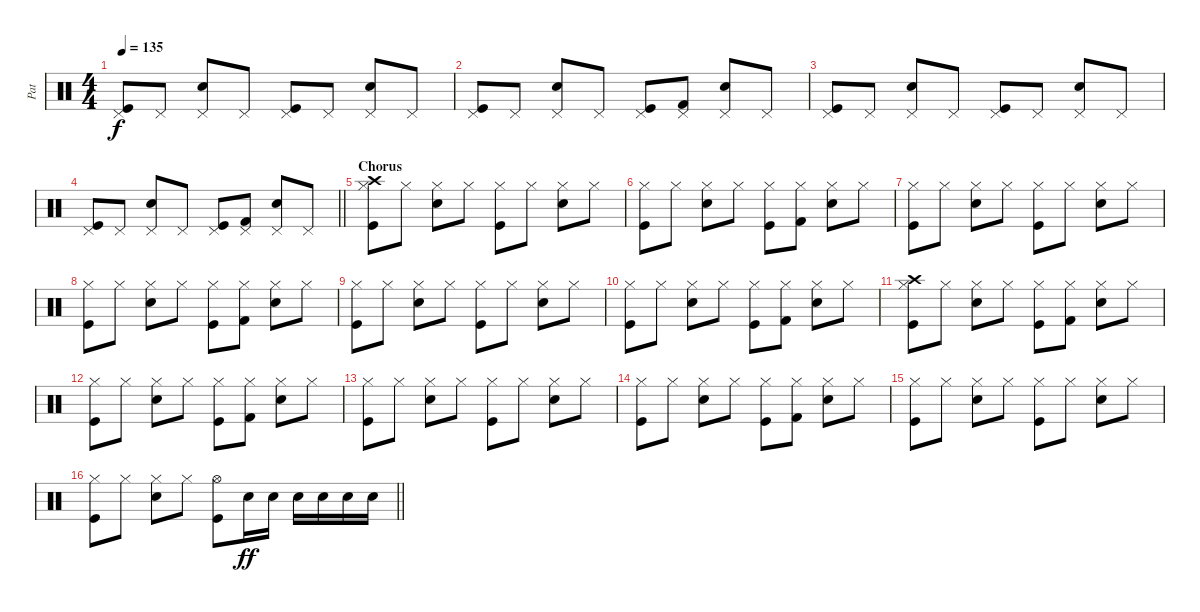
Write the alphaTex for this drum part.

\track ("Pat" "Pat") {instrument percussion}
\staff {score}
\articulation defaults
\ts (4 4)
\tempo 135
\clef neutral
\ks c
("Pedal Hi-Hat (hit)" "Kick (hit)").8{dy f} "Pedal Hi-Hat (hit)".8 ("Pedal Hi-Hat (hit)" "Snare (hit) 2").8 "Pedal Hi-Hat (hit)".8 ("Pedal Hi-Hat (hit)" "Kick (hit)").8 "Pedal Hi-Hat (hit)".8 ("Pedal Hi-Hat (hit)" "Snare (hit) 2").8 "Pedal Hi-Hat (hit)".8 |
("Pedal Hi-Hat (hit)" "Kick (hit)").8 "Pedal Hi-Hat (hit)".8 ("Pedal Hi-Hat (hit)" "Snare (hit) 2").8 "Pedal Hi-Hat (hit)".8 ("Pedal Hi-Hat (hit)" "Kick (hit)").8 ("Pedal Hi-Hat (hit)" "Kick (hit) 2").8 ("Pedal Hi-Hat (hit)" "Snare (hit) 2").8 "Pedal Hi-Hat (hit)".8 |
("Pedal Hi-Hat (hit)" "Kick (hit)").8 "Pedal Hi-Hat (hit)".8 ("Pedal Hi-Hat (hit)" "Snare (hit) 2").8 "Pedal Hi-Hat (hit)".8 ("Pedal Hi-Hat (hit)" "Kick (hit)").8 "Pedal Hi-Hat (hit)".8 ("Pedal Hi-Hat (hit)" "Snare (hit) 2").8 "Pedal Hi-Hat (hit)".8 |
\barLineRight lightlight
("Pedal Hi-Hat (hit)" "Kick (hit)").8 "Pedal Hi-Hat (hit)".8 ("Pedal Hi-Hat (hit)" "Snare (hit) 2").8 "Pedal Hi-Hat (hit)".8 ("Pedal Hi-Hat (hit)" "Kick (hit)").8 ("Pedal Hi-Hat (hit)" "Kick (hit) 2").8 ("Pedal Hi-Hat (hit)" "Snare (hit) 2").8 "Pedal Hi-Hat (hit)".8 |
\section ("" "Chorus")
("Crash high (hit)" "Hi-Hat (closed)" "Kick (hit)").8 "Hi-Hat (closed)".8 ("Hi-Hat (closed)" "Snare (hit) 2").8 "Hi-Hat (closed)".8 ("Hi-Hat (closed)" "Kick (hit)").8 "Hi-Hat (closed)".8 ("Hi-Hat (closed)" "Snare (hit) 2").8 "Hi-Hat (closed)".8 |
("Hi-Hat (closed)" "Kick (hit)").8 "Hi-Hat (closed)".8 ("Hi-Hat (closed)" "Snare (hit) 2").8 "Hi-Hat (closed)".8 ("Hi-Hat (closed)" "Kick (hit)").8 ("Hi-Hat (closed)" "Kick (hit) 2").8 ("Hi-Hat (closed)" "Snare (hit) 2").8 "Hi-Hat (closed)".8 |
("Hi-Hat (closed)" "Kick (hit)").8 "Hi-Hat (closed)".8 ("Hi-Hat (closed)" "Snare (hit) 2").8 "Hi-Hat (closed)".8 ("Hi-Hat (closed)" "Kick (hit)").8 "Hi-Hat (closed)".8 ("Hi-Hat (closed)" "Snare (hit) 2").8 "Hi-Hat (closed)".8 |
("Hi-Hat (closed)" "Kick (hit)").8 "Hi-Hat (closed)".8 ("Hi-Hat (closed)" "Snare (hit) 2").8 "Hi-Hat (closed)".8 ("Hi-Hat (closed)" "Kick (hit)").8 ("Hi-Hat (closed)" "Kick (hit) 2").8 ("Hi-Hat (closed)" "Snare (hit) 2").8 "Hi-Hat (closed)".8 |
("Hi-Hat (closed)" "Kick (hit)").8 "Hi-Hat (closed)".8 ("Hi-Hat (closed)" "Snare (hit) 2").8 "Hi-Hat (closed)".8 ("Hi-Hat (closed)" "Kick (hit)").8 "Hi-Hat (closed)".8 ("Hi-Hat (closed)" "Snare (hit) 2").8 "Hi-Hat (closed)".8 |
("Hi-Hat (closed)" "Kick (hit)").8 "Hi-Hat (closed)".8 ("Hi-Hat (closed)" "Snare (hit) 2").8 "Hi-Hat (closed)".8 ("Hi-Hat (closed)" "Kick (hit)").8 ("Hi-Hat (closed)" "Kick (hit) 2").8 ("Hi-Hat (closed)" "Snare (hit) 2").8 "Hi-Hat (closed)".8 |
("Crash high (hit)" "Hi-Hat (closed)" "Kick (hit)").8 "Hi-Hat (closed)".8 ("Hi-Hat (closed)" "Snare (hit) 2").8 "Hi-Hat (closed)".8 ("Hi-Hat (closed)" "Kick (hit)").8 ("Hi-Hat (closed)" "Kick (hit) 2").8 ("Hi-Hat (closed)" "Snare (hit) 2").8 "Hi-Hat (closed)".8 |
("Hi-Hat (closed)" "Kick (hit)").8 "Hi-Hat (closed)".8 ("Hi-Hat (closed)" "Snare (hit) 2").8 "Hi-Hat (closed)".8 ("Hi-Hat (closed)" "Kick (hit)").8 ("Hi-Hat (closed)" "Kick (hit) 2").8 ("Hi-Hat (closed)" "Snare (hit) 2").8 "Hi-Hat (closed)".8 |
("Hi-Hat (closed)" "Kick (hit)").8 "Hi-Hat (closed)".8 ("Hi-Hat (closed)" "Snare (hit) 2").8 "Hi-Hat (closed)".8 ("Hi-Hat (closed)" "Kick (hit)").8 "Hi-Hat (closed)".8 ("Hi-Hat (closed)" "Snare (hit) 2").8 "Hi-Hat (closed)".8 |
("Hi-Hat (closed)" "Kick (hit)").8 "Hi-Hat (closed)".8 ("Hi-Hat (closed)" "Snare (hit) 2").8 "Hi-Hat (closed)".8 ("Hi-Hat (closed)" "Kick (hit)").8 ("Hi-Hat (closed)" "Kick (hit) 2").8 ("Hi-Hat (closed)" "Snare (hit) 2").8 "Hi-Hat (closed)".8 |
("Hi-Hat (closed)" "Kick (hit)").8 "Hi-Hat (closed)".8 ("Hi-Hat (closed)" "Snare (hit) 2").8 "Hi-Hat (closed)".8 ("Hi-Hat (closed)" "Kick (hit)").8 "Hi-Hat (closed)".8 ("Hi-Hat (closed)" "Snare (hit) 2").8 "Hi-Hat (closed)".8 |
\barLineRight lightlight
("Hi-Hat (closed)" "Kick (hit)").8 "Hi-Hat (closed)".8 ("Hi-Hat (closed)" "Snare (hit) 2").8 "Hi-Hat (closed)".8 ("Hi-Hat (open)" "Kick (hit)").8 "Snare (hit) 2".16{dy ff} "Snare (hit) 2".16 "Snare (hit) 2".16 "Snare (hit) 2".16 "Snare (hit) 2".16 "Snare (hit) 2".16
